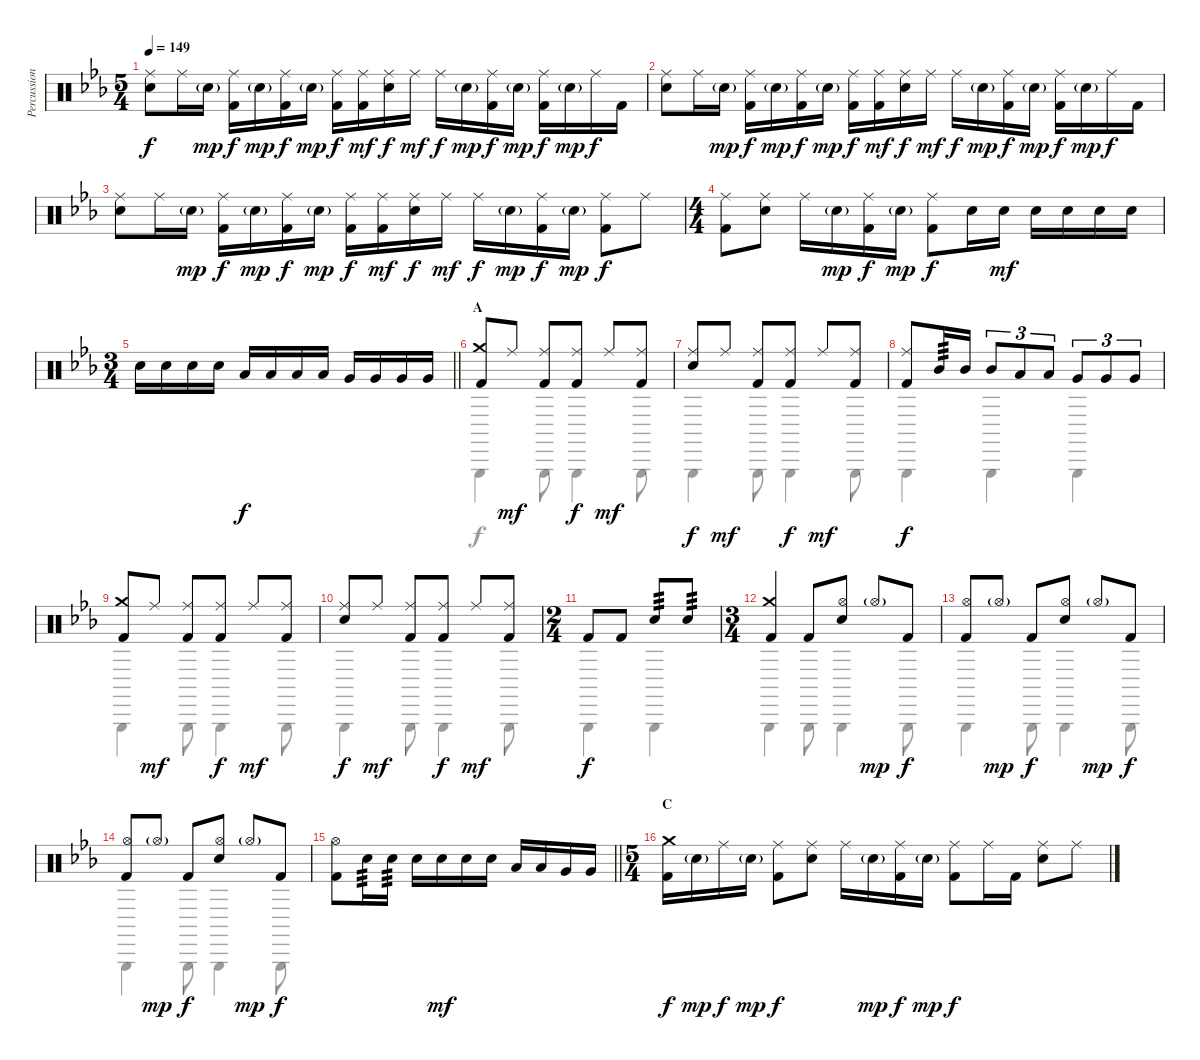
\track ("Percussion" "Percussion") {instrument percussion}
\staff {score}
\articulation defaults
\voice
\ts (5 4)
\tempo 149
\clef neutral
\ks cminor
("Ride (middle)" "Snare (hit) 2").8{dy f} "Ride (middle)".16 "Snare (hit) 2"{g}.16{dy mp} ("Ride (middle)" "Kick (hit) 2").16{dy f} "Snare (hit) 2"{g}.16{dy mp} ("Ride (middle)" "Kick (hit) 2").16{dy f} "Snare (hit) 2"{g}.16{dy mp} ("Ride (middle)" "Kick (hit) 2").16{dy f} ("Ride (middle)" "Kick (hit) 2").16{dy mf} ("Ride (middle)" "Snare (hit) 2").16{dy f} "Ride (middle)".16{dy mf} "Ride (middle)".16{dy f} "Snare (hit) 2"{g}.16{dy mp} ("Ride (middle)" "Kick (hit) 2").16{dy f} "Snare (hit) 2"{g}.16{dy mp} ("Ride (middle)" "Kick (hit) 2").16{dy f} "Snare (hit) 2"{g}.16{dy mp} "Ride (middle)".16{dy f} "Kick (hit) 2".16 |
("Ride (middle)" "Snare (hit) 2").8 "Ride (middle)".16 "Snare (hit) 2"{g}.16{dy mp} ("Ride (middle)" "Kick (hit) 2").16{dy f} "Snare (hit) 2"{g}.16{dy mp} ("Ride (middle)" "Kick (hit) 2").16{dy f} "Snare (hit) 2"{g}.16{dy mp} ("Ride (middle)" "Kick (hit) 2").16{dy f} ("Ride (middle)" "Kick (hit) 2").16{dy mf} ("Ride (middle)" "Snare (hit) 2").16{dy f} "Ride (middle)".16{dy mf} "Ride (middle)".16{dy f} "Snare (hit) 2"{g}.16{dy mp} ("Ride (middle)" "Kick (hit) 2").16{dy f} "Snare (hit) 2"{g}.16{dy mp} ("Ride (middle)" "Kick (hit) 2").16{dy f} "Snare (hit) 2"{g}.16{dy mp} "Ride (middle)".16{dy f} "Kick (hit) 2".16 |
("Ride (middle)" "Snare (hit) 2").8 "Ride (middle)".16 "Snare (hit) 2"{g}.16{dy mp} ("Ride (middle)" "Kick (hit) 2").16{dy f} "Snare (hit) 2"{g}.16{dy mp} ("Ride (middle)" "Kick (hit) 2").16{dy f} "Snare (hit) 2"{g}.16{dy mp} ("Ride (middle)" "Kick (hit) 2").16{dy f} ("Ride (middle)" "Kick (hit) 2").16{dy mf} ("Ride (middle)" "Snare (hit) 2").16{dy f} "Ride (middle)".16{dy mf} "Ride (middle)".16{dy f} "Snare (hit) 2"{g}.16{dy mp} ("Ride (middle)" "Kick (hit) 2").16{dy f} "Snare (hit) 2"{g}.16{dy mp} ("Ride (middle)" "Kick (hit) 2").8{dy f} "Ride (middle)".8 |
\ts (4 4)
("Ride (middle)" "Kick (hit) 2").8 ("Ride (middle)" "Snare (hit) 2").8 "Ride (middle)".16 "Snare (hit) 2"{g}.16{dy mp} ("Ride (middle)" "Kick (hit) 2").16{dy f} "Snare (hit) 2"{g}.16{dy mp} ("Ride (middle)" "Kick (hit) 2").8{dy f} "Snare (hit) 2".16 "Snare (hit) 2".16{dy mf} "Snare (hit) 2".16 "Snare (hit) 2".16 "Snare (hit) 2".16 "Snare (hit) 2".16 |
\ts (3 4)
\barLineRight lightlight "Snare (hit) 2".16 "Snare (hit) 2".16 "Snare (hit) 2".16 "Snare (hit) 2".16 "Low Tom (hit)".16{dy f} "Low Tom (hit)".16 "Low Tom (hit)".16 "Low Tom (hit)".16 "Very Low Tom (hit)".16 "Very Low Tom (hit)".16 "Very Low Tom (hit)".16 "Very Low Tom (hit)".16
|
\section ("" "A")
("Crash medium (hit)" "Kick (hit) 2").8 "Ride (middle)".8{dy mf} ("Ride (middle)" "Kick (hit) 2").8 ("Ride (middle)" "Kick (hit) 2").8{dy f} "Ride (middle)".8{dy mf} ("Ride (middle)" "Kick (hit) 2").8 |
("Ride (middle)" "Snare (hit) 2").8{dy f} "Ride (middle)".8{dy mf} ("Ride (middle)" "Kick (hit) 2").8 ("Ride (middle)" "Kick (hit) 2").8{dy f} "Ride (middle)".8{dy mf} ("Ride (middle)" "Kick (hit) 2").8 |
("Ride (middle)" "Kick (hit) 2").8{dy f} "Mid Tom (hit)".16{tp 3} "Mid Tom (hit)".16 "Mid Tom (hit)".8{tu (3 2)} "Low Tom (hit)".8{tu (3 2)} "Low Tom (hit)".8{tu (3 2)} "Very Low Tom (hit)".8{tu (3 2)} "Very Low Tom (hit)".8{tu (3 2)} "Very Low Tom (hit)".8{tu (3 2)} |
("Crash medium (hit)" "Kick (hit) 2").8 "Ride (middle)".8{dy mf} ("Ride (middle)" "Kick (hit) 2").8 ("Ride (middle)" "Kick (hit) 2").8{dy f} "Ride (middle)".8{dy mf} ("Ride (middle)" "Kick (hit) 2").8 |
("Ride (middle)" "Snare (hit) 2").8{dy f} "Ride (middle)".8{dy mf} ("Ride (middle)" "Kick (hit) 2").8 ("Ride (middle)" "Kick (hit) 2").8{dy f} "Ride (middle)".8{dy mf} ("Ride (middle)" "Kick (hit) 2").8 |
\ts (2 4)
"Kick (hit) 2".8{dy f} "Kick (hit) 2".8 "Snare (hit) 2".8{tp 3} "Snare (hit) 2".8{tp 3} |
\ts (3 4)
("Crash medium (hit)" "Kick (hit) 2").4 "Kick (hit) 2".8 ("Hi-Hat (open)" "Snare (hit) 2").8 "Hi-Hat (open)"{g}.8{dy mp} "Kick (hit) 2".8{dy f} |
("Hi-Hat (open)" "Kick (hit) 2").8 "Hi-Hat (open)"{g}.8{dy mp} "Kick (hit) 2".8{dy f} ("Hi-Hat (open)" "Snare (hit) 2").8 "Hi-Hat (open)"{g}.8{dy mp} "Kick (hit) 2".8{dy f} |
("Hi-Hat (open)" "Kick (hit) 2").8 "Hi-Hat (open)"{g}.8{dy mp} "Kick (hit) 2".8{dy f} ("Hi-Hat (open)" "Snare (hit) 2").8 "Hi-Hat (open)"{g}.8{dy mp} "Kick (hit) 2".8{dy f} |
\barLineRight lightlight
("Hi-Hat (open)" "Kick (hit) 2").8 "Snare (hit) 2".16{tp 3} "Snare (hit) 2".16{tp 3} "Snare (hit) 2".16 "Snare (hit) 2".16{dy mf} "Snare (hit) 2".16 "Snare (hit) 2".16 "Low Tom (hit)".16 "Low Tom (hit)".16 "Very Low Tom (hit)".16 "Very Low Tom (hit)".16 |
\ts (5 4)
\section ("" "C")
("Crash medium (hit)" "Kick (hit) 2").16{dy f} "Snare (hit) 2"{g}.16{dy mp} "Ride (middle)".16{dy f} "Snare (hit) 2"{g}.16{dy mp} ("Ride (middle)" "Kick (hit) 2").8{dy f} ("Ride (middle)" "Snare (hit) 2").8 "Ride (middle)".16 "Snare (hit) 2"{g}.16{dy mp} ("Ride (middle)" "Kick (hit) 2").16{dy f} "Snare (hit) 2"{g}.16{dy mp} ("Ride (middle)" "Kick (hit) 2").8{dy f} "Ride (middle)".16 "Kick (hit) 2".16 ("Ride (middle)" "Snare (hit) 2").8 "Ride (middle)".8
\voice
\clef neutral
\ottava regular
\simile none
\ks cminor
|
|
|
|
\barLineRight lightlight
|
"Triangle (hit)".4 "Triangle (hit)".8 "Triangle (hit)".4 "Triangle (hit)".8 |
"Triangle (hit)".4 "Triangle (hit)".8 "Triangle (hit)".4 "Triangle (hit)".8 |
"Triangle (hit)".4 "Triangle (hit)".4 "Triangle (hit)".4 |
"Triangle (hit)".4 "Triangle (hit)".8 "Triangle (hit)".4 "Triangle (hit)".8 |
"Triangle (hit)".4 "Triangle (hit)".8 "Triangle (hit)".4 "Triangle (hit)".8 |
"Triangle (hit)".4 "Triangle (hit)".4 |
"Triangle (hit)".4 "Triangle (hit)".8 "Triangle (hit)".4 "Triangle (hit)".8 |
"Triangle (hit)".4 "Triangle (hit)".8 "Triangle (hit)".4 "Triangle (hit)".8 |
"Triangle (hit)".4 "Triangle (hit)".8 "Triangle (hit)".4 "Triangle (hit)".8 |
\barLineRight lightlight
|
